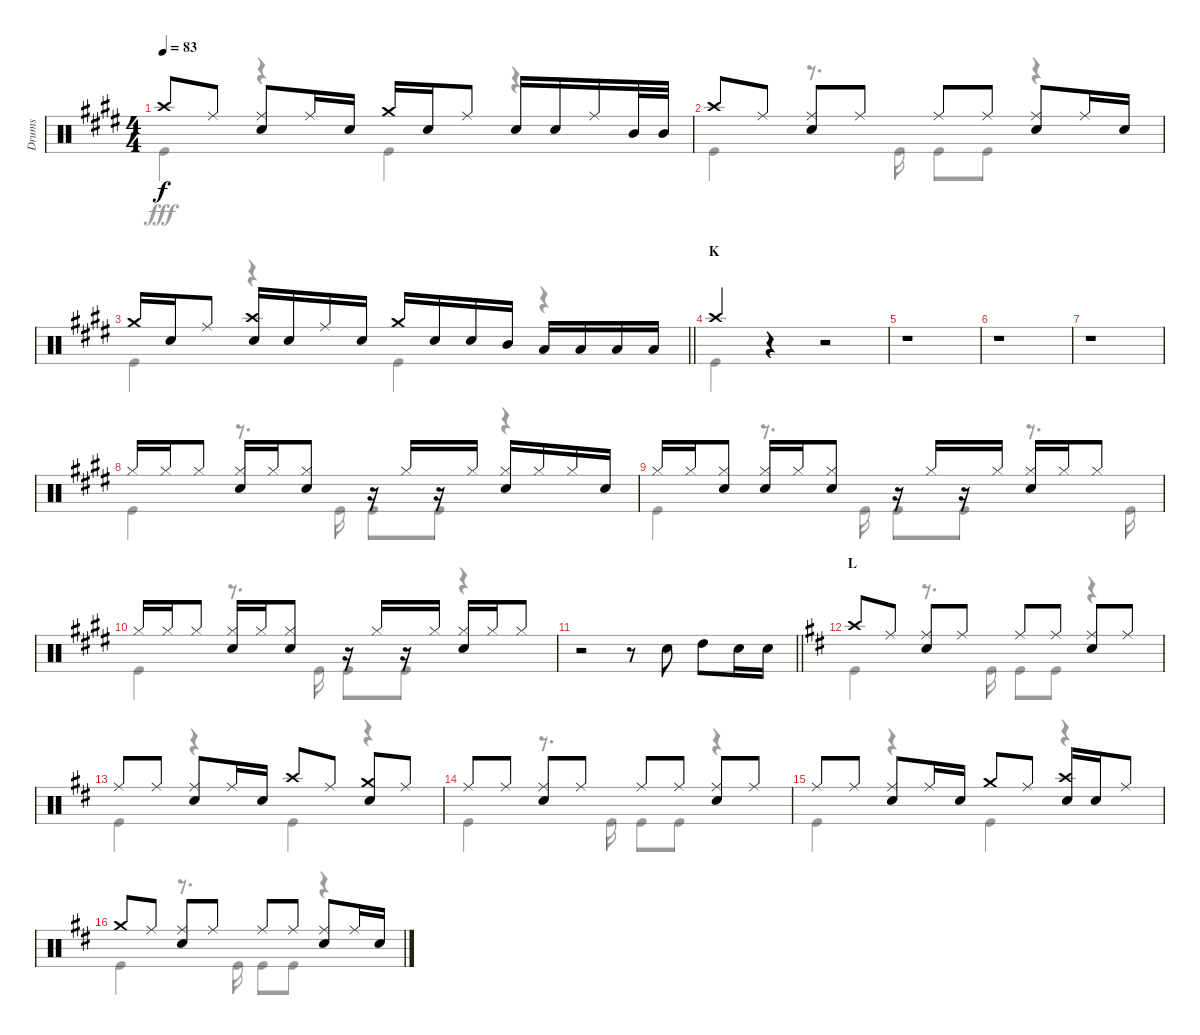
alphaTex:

\track ("Drums" "Drums") {instrument percussion}
\staff {score}
\articulation defaults
\voice
\ts (4 4)
\tempo 83
\clef neutral
\ks e "Crash high (hit)".8{dy f} "Ride (middle)".8
("Ride (middle)" "Snare (hit) 2").8 "Ride (middle)".16 "Snare (hit) 2".16 "Crash medium (hit)".16 "Snare (hit) 2".16 "Ride (middle)".8 "Snare (hit) 2".16 "Snare (hit) 2".16 "Ride (middle)".16 "Mid Tom (hit)".32 "Mid Tom (hit)".32 |
"Crash high (hit)".8 "Ride (middle)".8 ("Ride (middle)" "Snare (hit) 2").8 "Ride (middle)".8 "Ride (middle)".8 "Ride (middle)".8 ("Ride (middle)" "Snare (hit) 2").8 "Ride (middle)".16 "Snare (hit) 2".16 |
\barLineRight lightlight "Crash medium (hit)".16 "Snare (hit) 2".16 "Ride (middle)".8
("Crash high (hit)" "Snare (hit) 2").16 "Snare (hit) 2".16 "Ride (middle)".16 "Snare (hit) 2".16 "Crash medium (hit)".16 "Snare (hit) 2".16 "Snare (hit) 2".16 "Mid Tom (hit)".16 "Low Tom (hit)".16 "Low Tom (hit)".16 "Low Tom (hit)".16 "Low Tom (hit)".16 |
\section ("" "K")
"Crash high (hit)".4 r.4 r.2 |
r.1 |
r.1 |
r.1 |
"Hi-Hat (closed)".16 "Hi-Hat (closed)".16 "Hi-Hat (closed)".8 ("Hi-Hat (closed)" "Snare (hit) 2").16 "Hi-Hat (closed)".16 ("Hi-Hat (closed)" "Snare (hit) 2").8 r.16 "Hi-Hat (closed)".16 r.16 "Hi-Hat (closed)".16 ("Hi-Hat (closed)" "Snare (hit) 2").16 "Hi-Hat (closed)".16 "Hi-Hat (closed)".16 "Snare (hit) 2".16 |
"Hi-Hat (closed)".16 "Hi-Hat (closed)".16 ("Hi-Hat (closed)" "Snare (hit) 2").8 ("Hi-Hat (closed)" "Snare (hit) 2").16 "Hi-Hat (closed)".16 ("Hi-Hat (closed)" "Snare (hit) 2").8 r.16 "Hi-Hat (closed)".16 r.16 "Hi-Hat (closed)".16 ("Hi-Hat (closed)" "Snare (hit) 2").16 "Hi-Hat (closed)".16 "Hi-Hat (closed)".8 |
"Hi-Hat (closed)".16 "Hi-Hat (closed)".16 "Hi-Hat (closed)".8 ("Hi-Hat (closed)" "Snare (hit) 2").16 "Hi-Hat (closed)".16 ("Hi-Hat (closed)" "Snare (hit) 2").8 r.16 "Hi-Hat (closed)".16 r.16 "Hi-Hat (closed)".16 ("Hi-Hat (closed)" "Snare (hit) 2").16 "Hi-Hat (closed)".16 "Hi-Hat (closed)".8 |
\barLineRight lightlight
r.2 r.8 "Snare (hit) 2".8 "High Tom (hit)".8 "Snare (hit) 2".16 "Snare (hit) 2".16 |
\section ("" "L")
\ks d "Crash high (hit)".8 "Ride (middle)".8
("Ride (middle)" "Snare (hit) 2").8 "Ride (middle)".8 "Ride (middle)".8 "Ride (middle)".8 ("Ride (middle)" "Snare (hit) 2").8 "Ride (middle)".8 |
"Ride (middle)".8 "Ride (middle)".8 ("Ride (middle)" "Snare (hit) 2").8 "Ride (middle)".16 "Snare (hit) 2".16 "Crash high (hit)".8 "Ride (middle)".8 ("Crash medium (hit)" "Snare (hit) 2").8 "Ride (middle)".8 |
"Ride (middle)".8 "Ride (middle)".8 ("Ride (middle)" "Snare (hit) 2").8 "Ride (middle)".8 "Ride (middle)".8 "Ride (middle)".8 ("Ride (middle)" "Snare (hit) 2").8 "Ride (middle)".8 |
"Ride (middle)".8 "Ride (middle)".8 ("Ride (middle)" "Snare (hit) 2").8 "Ride (middle)".16 "Snare (hit) 2".16 "Crash medium (hit)".8 "Ride (middle)".8 ("Crash high (hit)" "Snare (hit) 2").16 "Snare (hit) 2".16 "Ride (middle)".8 |
"Crash medium (hit)".8 "Ride (middle)".8 ("Ride (middle)" "Snare (hit) 2").8 "Ride (middle)".8 "Ride (middle)".8 "Ride (middle)".8 ("Ride (middle)" "Snare (hit) 2").8 "Ride (middle)".16 "Snare (hit) 2".16
\voice
\clef neutral
\ottava regular
\simile none
\ks e "Kick (hit)".4{dy fff}
r.4 "Kick (hit)".4 r.4 |
"Kick (hit)".4 r.8{d} "Kick (hit)".16 "Kick (hit)".8 "Kick (hit)".8 r.4 |
\barLineRight lightlight "Kick (hit)".4
r.4 "Kick (hit)".4 r.4 |
"Kick (hit)".4 r.4 r.2 |
|
|
|
"Kick (hit)".4 r.8{d} "Kick (hit)".16 "Kick (hit)".8 "Kick (hit)".8 r.4 |
"Kick (hit)".4 r.8{d} "Kick (hit)".16 "Kick (hit)".8 "Kick (hit)".8 r.8{d} "Kick (hit)".16 |
"Kick (hit)".4 r.8{d} "Kick (hit)".16 "Kick (hit)".8 "Kick (hit)".8 r.4 |
\barLineRight lightlight
|
\ks d "Kick (hit)".4
r.8{d} "Kick (hit)".16 "Kick (hit)".8 "Kick (hit)".8 r.4 |
"Kick (hit)".4 r.4 "Kick (hit)".4 r.4 |
"Kick (hit)".4 r.8{d} "Kick (hit)".16 "Kick (hit)".8 "Kick (hit)".8 r.4 |
"Kick (hit)".4 r.4 "Kick (hit)".4 r.4 |
"Kick (hit)".4 r.8{d} "Kick (hit)".16 "Kick (hit)".8 "Kick (hit)".8 r.4
